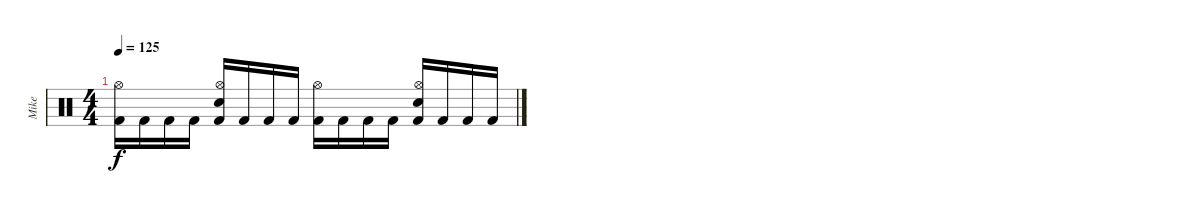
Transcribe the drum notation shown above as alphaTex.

\track ("Mike" "Mike") {instrument percussion}
\staff {score}
\articulation defaults
\ts (4 4)
\tempo 125
\clef neutral
\ks c
("Kick (hit) 2" "Hi-Hat (open)").16{dy f} "Kick (hit) 2".16 "Kick (hit) 2".16 "Kick (hit) 2".16 ("Kick (hit) 2" "Electric Snare (hit)" "Hi-Hat (open)").16 "Kick (hit) 2".16 "Kick (hit) 2".16 "Kick (hit) 2".16 ("Kick (hit) 2" "Hi-Hat (open)").16 "Kick (hit) 2".16 "Kick (hit) 2".16 "Kick (hit) 2".16 ("Kick (hit) 2" "Electric Snare (hit)" "Hi-Hat (open)").16 "Kick (hit) 2".16 "Kick (hit) 2".16 "Kick (hit) 2".16
